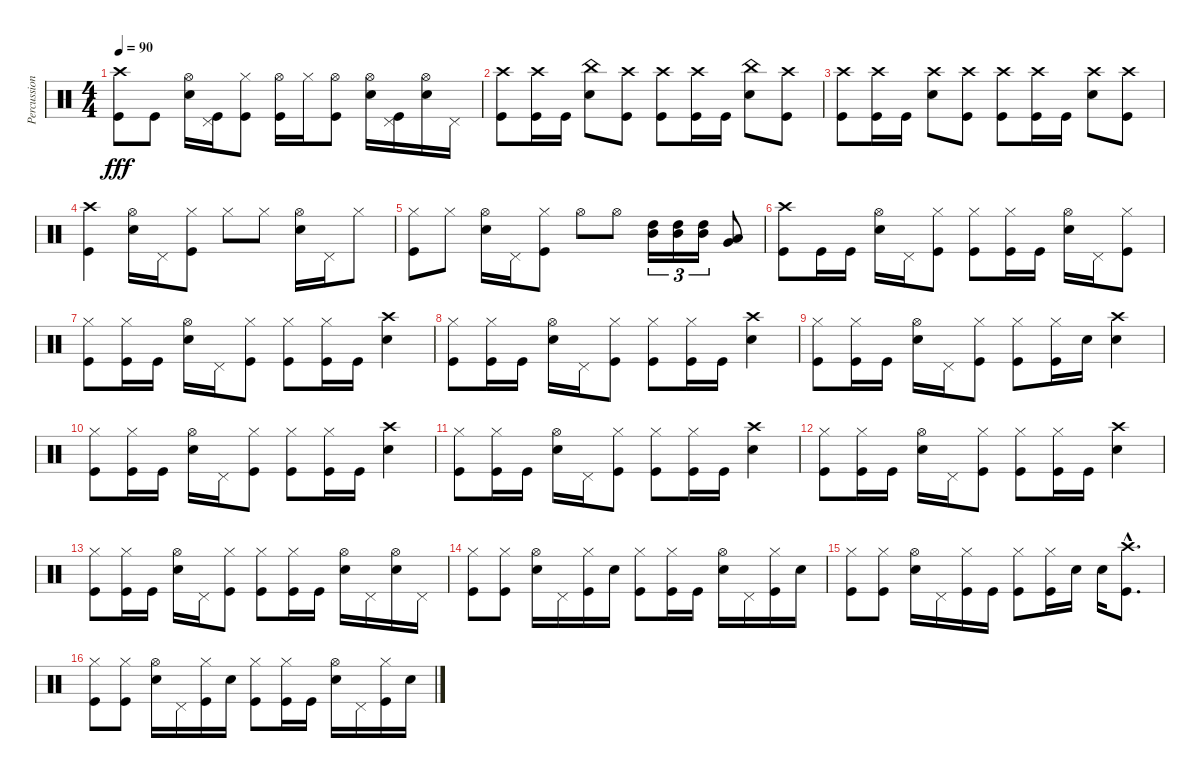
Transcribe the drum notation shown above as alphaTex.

\track ("Percussion" "Percussion") {instrument percussion}
\staff {score}
\articulation defaults
\ts (4 4)
\tempo 90
\clef neutral
\ks c
("Crash high (hit)" "Kick (hit)").8{dy fff} "Kick (hit)".8 ("Hi-Hat (open)" "Electric Snare (hit)").16 ("Pedal Hi-Hat (hit)" "Kick (hit)").16 ("Hi-Hat (closed)" "Kick (hit)").8 ("Hi-Hat (open)" "Kick (hit)").16 "Hi-Hat (closed)".16 ("Hi-Hat (open)" "Kick (hit)").8 ("Hi-Hat (open)" "Electric Snare (hit)").16 ("Pedal Hi-Hat (hit)" "Kick (hit)").16 ("Hi-Hat (open)" "Electric Snare (hit)").16 "Pedal Hi-Hat (hit)".16 |
("Crash high (hit)" "Kick (hit)").8 ("Crash high (hit)" "Kick (hit)").16 "Kick (hit)".16 ("China (hit)" "Electric Snare (hit)").8 ("Crash high (hit)" "Kick (hit)").8 ("Crash high (hit)" "Kick (hit)").8 ("Crash high (hit)" "Kick (hit)").16 "Kick (hit)".16 ("China (hit)" "Electric Snare (hit)").8 ("Crash high (hit)" "Kick (hit)").8 |
("Crash high (hit)" "Kick (hit)").8 ("Crash high (hit)" "Kick (hit)").16 "Kick (hit)".16 ("Crash high (hit)" "Electric Snare (hit)").8 ("Crash high (hit)" "Kick (hit)").8 ("Crash high (hit)" "Kick (hit)").8 ("Crash high (hit)" "Kick (hit)").16 "Kick (hit)".16 ("Crash high (hit)" "Electric Snare (hit)").8 ("Crash high (hit)" "Kick (hit)").8 |
("Crash high (hit)" "Kick (hit)").4 ("Hi-Hat (open)" "Electric Snare (hit)").16 "Pedal Hi-Hat (hit)".16 ("Hi-Hat (closed)" "Kick (hit)").8 "Hi-Hat (closed)".8 "Hi-Hat (closed)".8 ("Hi-Hat (open)" "Electric Snare (hit)").16 "Pedal Hi-Hat (hit)".16 "Hi-Hat (closed)".8 |
("Hi-Hat (closed)" "Kick (hit)").8 "Hi-Hat (closed)".8 ("Hi-Hat (open)" "Electric Snare (hit)").16 "Pedal Hi-Hat (hit)".16 ("Hi-Hat (closed)" "Kick (hit)").8 "Hi-Hat (open)".8 "Hi-Hat (open)".8 ("High Tom (hit)" "Mid Tom (hit)").16{tu (3 2)} ("High Tom (hit)" "Mid Tom (hit)").16{tu (3 2)} ("High Tom (hit)" "Mid Tom (hit)").16{tu (3 2)} ("Low Tom (hit)" "Very Low Tom (hit)").8 |
("Crash high (hit)" "Kick (hit)").8 "Kick (hit)".16 "Kick (hit)".16 ("Hi-Hat (open)" "Electric Snare (hit)").16 "Pedal Hi-Hat (hit)".16 ("Hi-Hat (closed)" "Kick (hit)").8 ("Hi-Hat (closed)" "Kick (hit)").8 ("Hi-Hat (closed)" "Kick (hit)").16 "Kick (hit)".16 ("Hi-Hat (open)" "Electric Snare (hit)").16 "Pedal Hi-Hat (hit)".16 ("Hi-Hat (closed)" "Kick (hit)").8 |
("Hi-Hat (closed)" "Kick (hit)").8 ("Hi-Hat (closed)" "Kick (hit)").16 "Kick (hit)".16 ("Hi-Hat (open)" "Electric Snare (hit)").16 "Pedal Hi-Hat (hit)".16 ("Hi-Hat (closed)" "Kick (hit)").8 ("Hi-Hat (closed)" "Kick (hit)").8 ("Hi-Hat (closed)" "Kick (hit)").16 "Kick (hit)".16 ("Crash high (hit)" "Electric Snare (hit)").4 |
("Hi-Hat (closed)" "Kick (hit)").8 ("Hi-Hat (closed)" "Kick (hit)").16 "Kick (hit)".16 ("Hi-Hat (open)" "Electric Snare (hit)").16 "Pedal Hi-Hat (hit)".16 ("Hi-Hat (closed)" "Kick (hit)").8 ("Hi-Hat (closed)" "Kick (hit)").8 ("Hi-Hat (closed)" "Kick (hit)").16 "Kick (hit)".16 ("Crash high (hit)" "Electric Snare (hit)").4 |
("Hi-Hat (closed)" "Kick (hit)").8 ("Hi-Hat (closed)" "Kick (hit)").16 "Kick (hit)".16 ("Hi-Hat (open)" "Electric Snare (hit)").16 "Pedal Hi-Hat (hit)".16 ("Hi-Hat (closed)" "Kick (hit)").8 ("Hi-Hat (closed)" "Kick (hit)").8 ("Hi-Hat (closed)" "Kick (hit)").16 "Electric Snare (hit)".16 ("Crash high (hit)" "Electric Snare (hit)").4 |
("Hi-Hat (closed)" "Kick (hit)").8 ("Hi-Hat (closed)" "Kick (hit)").16 "Kick (hit)".16 ("Hi-Hat (open)" "Electric Snare (hit)").16 "Pedal Hi-Hat (hit)".16 ("Hi-Hat (closed)" "Kick (hit)").8 ("Hi-Hat (closed)" "Kick (hit)").8 ("Hi-Hat (closed)" "Kick (hit)").16 "Kick (hit)".16 ("Crash high (hit)" "Electric Snare (hit)").4 |
("Hi-Hat (closed)" "Kick (hit)").8 ("Hi-Hat (closed)" "Kick (hit)").16 "Kick (hit)".16 ("Hi-Hat (open)" "Electric Snare (hit)").16 "Pedal Hi-Hat (hit)".16 ("Hi-Hat (closed)" "Kick (hit)").8 ("Hi-Hat (closed)" "Kick (hit)").8 ("Hi-Hat (closed)" "Kick (hit)").16 "Kick (hit)".16 ("Crash high (hit)" "Electric Snare (hit)").4 |
("Hi-Hat (closed)" "Kick (hit)").8 ("Hi-Hat (closed)" "Kick (hit)").16 "Kick (hit)".16 ("Hi-Hat (open)" "Electric Snare (hit)").16 "Pedal Hi-Hat (hit)".16 ("Hi-Hat (closed)" "Kick (hit)").8 ("Hi-Hat (closed)" "Kick (hit)").8 ("Hi-Hat (closed)" "Kick (hit)").16 "Kick (hit)".16 ("Crash high (hit)" "Electric Snare (hit)").4 |
("Hi-Hat (closed)" "Kick (hit)").8 ("Hi-Hat (closed)" "Kick (hit)").16 "Kick (hit)".16 ("Hi-Hat (open)" "Electric Snare (hit)").16 "Pedal Hi-Hat (hit)".16 ("Hi-Hat (closed)" "Kick (hit)").8 ("Hi-Hat (closed)" "Kick (hit)").8 ("Hi-Hat (closed)" "Kick (hit)").16 "Kick (hit)".16 ("Hi-Hat (open)" "Electric Snare (hit)").16 "Pedal Hi-Hat (hit)".16 ("Hi-Hat (open)" "Electric Snare (hit)").16 "Pedal Hi-Hat (hit)".16 |
("Hi-Hat (closed)" "Kick (hit)").8 ("Hi-Hat (closed)" "Kick (hit)").8 ("Hi-Hat (open)" "Electric Snare (hit)").16 "Pedal Hi-Hat (hit)".16 ("Hi-Hat (closed)" "Kick (hit)").16 "Electric Snare (hit)".16 ("Hi-Hat (closed)" "Kick (hit)").8 ("Hi-Hat (closed)" "Kick (hit)").16 "Kick (hit)".16 ("Hi-Hat (open)" "Electric Snare (hit)").16 "Pedal Hi-Hat (hit)".16 ("Hi-Hat (closed)" "Kick (hit)").16 "Electric Snare (hit)".16 |
("Hi-Hat (closed)" "Kick (hit)").8 ("Hi-Hat (closed)" "Kick (hit)").8 ("Hi-Hat (open)" "Electric Snare (hit)").16 "Pedal Hi-Hat (hit)".16 ("Hi-Hat (closed)" "Kick (hit)").16 "Kick (hit)".16 ("Hi-Hat (closed)" "Kick (hit)").8 ("Hi-Hat (closed)" "Kick (hit)").16 "Electric Snare (hit)".16 "Electric Snare (hit)".16 ("Crash high (hit)"{hac} "Kick (hit)"{hac}).8{d} |
("Hi-Hat (closed)" "Kick (hit)").8 ("Hi-Hat (closed)" "Kick (hit)").8 ("Hi-Hat (open)" "Electric Snare (hit)").16 "Pedal Hi-Hat (hit)".16 ("Hi-Hat (closed)" "Kick (hit)").16 "Electric Snare (hit)".16 ("Hi-Hat (closed)" "Kick (hit)").8 ("Hi-Hat (closed)" "Kick (hit)").16 "Kick (hit)".16 ("Hi-Hat (open)" "Electric Snare (hit)").16 "Pedal Hi-Hat (hit)".16 ("Hi-Hat (closed)" "Kick (hit)").16 "Electric Snare (hit)".16
